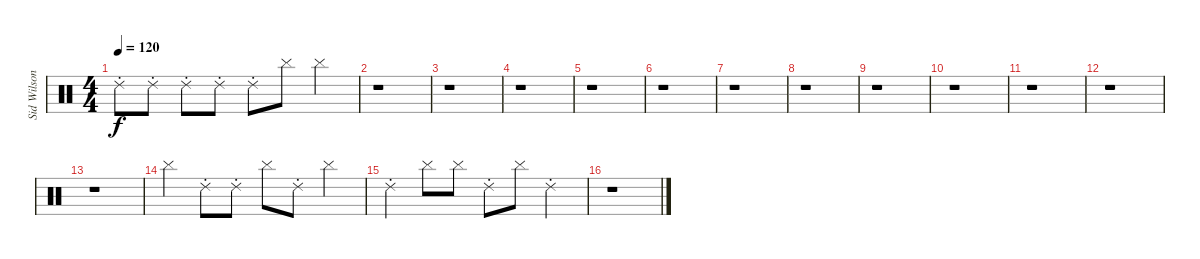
\track ("Sid Wilson" "Sid Wilson") {instrument percussion}
\staff {score}
\articulation defaults
\ts (4 4)
\tempo 120
\clef neutral
\ks c "Ride (choke) 2".8{dy f} "Ride (choke) 2".8 "Ride (choke) 2".8 "Ride (choke) 2".8 "Ride (choke) 2".8 "Cymbal (hit)".8 "Cymbal (hit)".4
|
r.1 |
r.1 |
r.1 |
r.1 |
r.1 |
r.1 |
r.1 |
r.1 |
r.1 |
r.1 |
r.1 |
r.1 |
"Cymbal (hit)".4 "Ride (choke) 2".8 "Ride (choke) 2".8 "Cymbal (hit)".8 "Ride (choke) 2".8 "Cymbal (hit)".4 |
"Ride (choke) 2".4 "Cymbal (hit)".8 "Cymbal (hit)".8 "Ride (choke) 2".8 "Cymbal (hit)".8 "Ride (choke) 2".4 |
r.1
